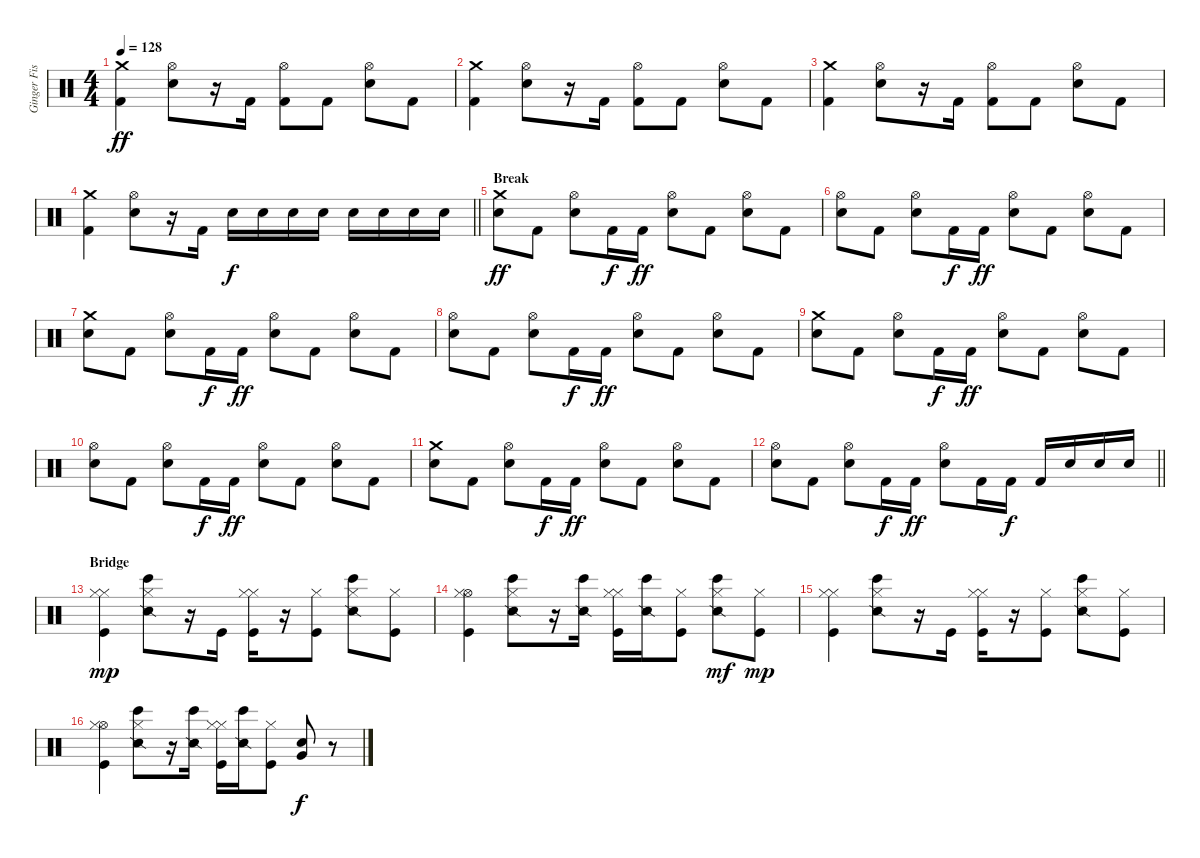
\track ("Ginger Fish" "Ginger Fis") {instrument percussion}
\staff {score}
\articulation defaults
\ts (4 4)
\tempo 128
\clef neutral
\ks c
("Crash medium (hit)" "Kick (hit) 2").4{dy ff} ("Hi-Hat (open)" "Electric Snare (hit)").8 r.16 "Kick (hit) 2".16 ("Hi-Hat (open)" "Kick (hit) 2").8 "Kick (hit) 2".8 ("Hi-Hat (open)" "Electric Snare (hit)").8 "Kick (hit) 2".8 |
("Crash medium (hit)" "Kick (hit) 2").4 ("Hi-Hat (open)" "Electric Snare (hit)").8 r.16 "Kick (hit) 2".16 ("Hi-Hat (open)" "Kick (hit) 2").8 "Kick (hit) 2".8 ("Hi-Hat (open)" "Electric Snare (hit)").8 "Kick (hit) 2".8 |
("Crash medium (hit)" "Kick (hit) 2").4 ("Hi-Hat (open)" "Electric Snare (hit)").8 r.16 "Kick (hit) 2".16 ("Hi-Hat (open)" "Kick (hit) 2").8 "Kick (hit) 2".8 ("Hi-Hat (open)" "Electric Snare (hit)").8 "Kick (hit) 2".8 |
\barLineRight lightlight
("Crash medium (hit)" "Kick (hit) 2").4 ("Hi-Hat (open)" "Electric Snare (hit)").8 r.16 "Kick (hit) 2".16 "Electric Snare (hit)".16{dy f} "Electric Snare (hit)".16 "Electric Snare (hit)".16 "Electric Snare (hit)".16 "Electric Snare (hit)".16 "Electric Snare (hit)".16 "Electric Snare (hit)".16 "Electric Snare (hit)".16 |
\section ("" "Break")
("Crash medium (hit)" "Electric Snare (hit)").8{dy ff} "Kick (hit) 2".8 ("Hi-Hat (open)" "Electric Snare (hit)").8 "Kick (hit) 2".16{dy f} "Kick (hit) 2".16{dy ff} ("Hi-Hat (open)" "Electric Snare (hit)").8 "Kick (hit) 2".8 ("Hi-Hat (open)" "Electric Snare (hit)").8 "Kick (hit) 2".8 |
("Hi-Hat (open)" "Electric Snare (hit)").8 "Kick (hit) 2".8 ("Hi-Hat (open)" "Electric Snare (hit)").8 "Kick (hit) 2".16{dy f} "Kick (hit) 2".16{dy ff} ("Hi-Hat (open)" "Electric Snare (hit)").8 "Kick (hit) 2".8 ("Hi-Hat (open)" "Electric Snare (hit)").8 "Kick (hit) 2".8 |
("Crash medium (hit)" "Electric Snare (hit)").8 "Kick (hit) 2".8 ("Hi-Hat (open)" "Electric Snare (hit)").8 "Kick (hit) 2".16{dy f} "Kick (hit) 2".16{dy ff} ("Hi-Hat (open)" "Electric Snare (hit)").8 "Kick (hit) 2".8 ("Hi-Hat (open)" "Electric Snare (hit)").8 "Kick (hit) 2".8 |
("Hi-Hat (open)" "Electric Snare (hit)").8 "Kick (hit) 2".8 ("Hi-Hat (open)" "Electric Snare (hit)").8 "Kick (hit) 2".16{dy f} "Kick (hit) 2".16{dy ff} ("Hi-Hat (open)" "Electric Snare (hit)").8 "Kick (hit) 2".8 ("Hi-Hat (open)" "Electric Snare (hit)").8 "Kick (hit) 2".8 |
("Crash medium (hit)" "Electric Snare (hit)").8 "Kick (hit) 2".8 ("Hi-Hat (open)" "Electric Snare (hit)").8 "Kick (hit) 2".16{dy f} "Kick (hit) 2".16{dy ff} ("Hi-Hat (open)" "Electric Snare (hit)").8 "Kick (hit) 2".8 ("Hi-Hat (open)" "Electric Snare (hit)").8 "Kick (hit) 2".8 |
("Hi-Hat (open)" "Electric Snare (hit)").8 "Kick (hit) 2".8 ("Hi-Hat (open)" "Electric Snare (hit)").8 "Kick (hit) 2".16{dy f} "Kick (hit) 2".16{dy ff} ("Hi-Hat (open)" "Electric Snare (hit)").8 "Kick (hit) 2".8 ("Hi-Hat (open)" "Electric Snare (hit)").8 "Kick (hit) 2".8 |
("Crash medium (hit)" "Electric Snare (hit)").8 "Kick (hit) 2".8 ("Hi-Hat (open)" "Electric Snare (hit)").8 "Kick (hit) 2".16{dy f} "Kick (hit) 2".16{dy ff} ("Hi-Hat (open)" "Electric Snare (hit)").8 "Kick (hit) 2".8 ("Hi-Hat (open)" "Electric Snare (hit)").8 "Kick (hit) 2".8 |
\barLineRight lightlight
("Hi-Hat (open)" "Electric Snare (hit)").8 "Kick (hit) 2".8 ("Hi-Hat (open)" "Electric Snare (hit)").8 "Kick (hit) 2".16{dy f} "Kick (hit) 2".16{dy ff} ("Hi-Hat (open)" "Electric Snare (hit)").8 "Kick (hit) 2".16 "Kick (hit) 2".16{dy f} "Kick (hit) 2".16 "Electric Snare (hit)".16 "Electric Snare (hit)".16 "Electric Snare (hit)".16 |
\section ("" "Bridge")
("Hi-Hat (closed)" "Hi-Hat (closed)" "Kick (hit)").4{dy mp} ("Hi-Hat (closed)" "Bongo High (hit)" "Snare (side stick) 2").8 r.16 "Kick (hit)".16 ("Hi-Hat (closed)" "Hi-Hat (closed)" "Kick (hit)").16 r.16 ("Hi-Hat (closed)" "Kick (hit)").8 ("Hi-Hat (closed)" "Bongo High (hit)" "Snare (side stick) 2").8 ("Hi-Hat (closed)" "Kick (hit)").8 |
("Hi-Hat (open)" "Hi-Hat (closed)" "Kick (hit)").4 ("Hi-Hat (closed)" "Bongo High (hit)" "Snare (side stick) 2").8 r.16 ("Bongo High (hit)" "Snare (side stick) 2").16 ("Hi-Hat (closed)" "Hi-Hat (closed)" "Kick (hit)").16 ("Bongo High (hit)" "Snare (side stick) 2").16 ("Hi-Hat (closed)" "Kick (hit)").8 ("Hi-Hat (closed)" "Bongo High (hit)" "Snare (side stick) 2").8{dy mf} ("Hi-Hat (closed)" "Kick (hit)").8{dy mp} |
("Hi-Hat (closed)" "Hi-Hat (closed)" "Kick (hit)").4 ("Hi-Hat (closed)" "Bongo High (hit)" "Snare (side stick) 2").8 r.16 "Kick (hit)".16 ("Hi-Hat (closed)" "Hi-Hat (closed)" "Kick (hit)").16 r.16 ("Hi-Hat (closed)" "Kick (hit)").8 ("Hi-Hat (closed)" "Bongo High (hit)" "Snare (side stick) 2").8 ("Hi-Hat (closed)" "Kick (hit)").8 |
("Hi-Hat (open)" "Hi-Hat (closed)" "Kick (hit)").4 ("Hi-Hat (closed)" "Bongo High (hit)" "Snare (side stick) 2").8 r.16 ("Bongo High (hit)" "Snare (side stick) 2").16 ("Hi-Hat (closed)" "Hi-Hat (closed)" "Kick (hit)").16 ("Bongo High (hit)" "Snare (side stick) 2").16 ("Hi-Hat (closed)" "Kick (hit)").8 ("Very Low Tom (hit)" "Electric Snare (hit)").8{dy f} r.8
